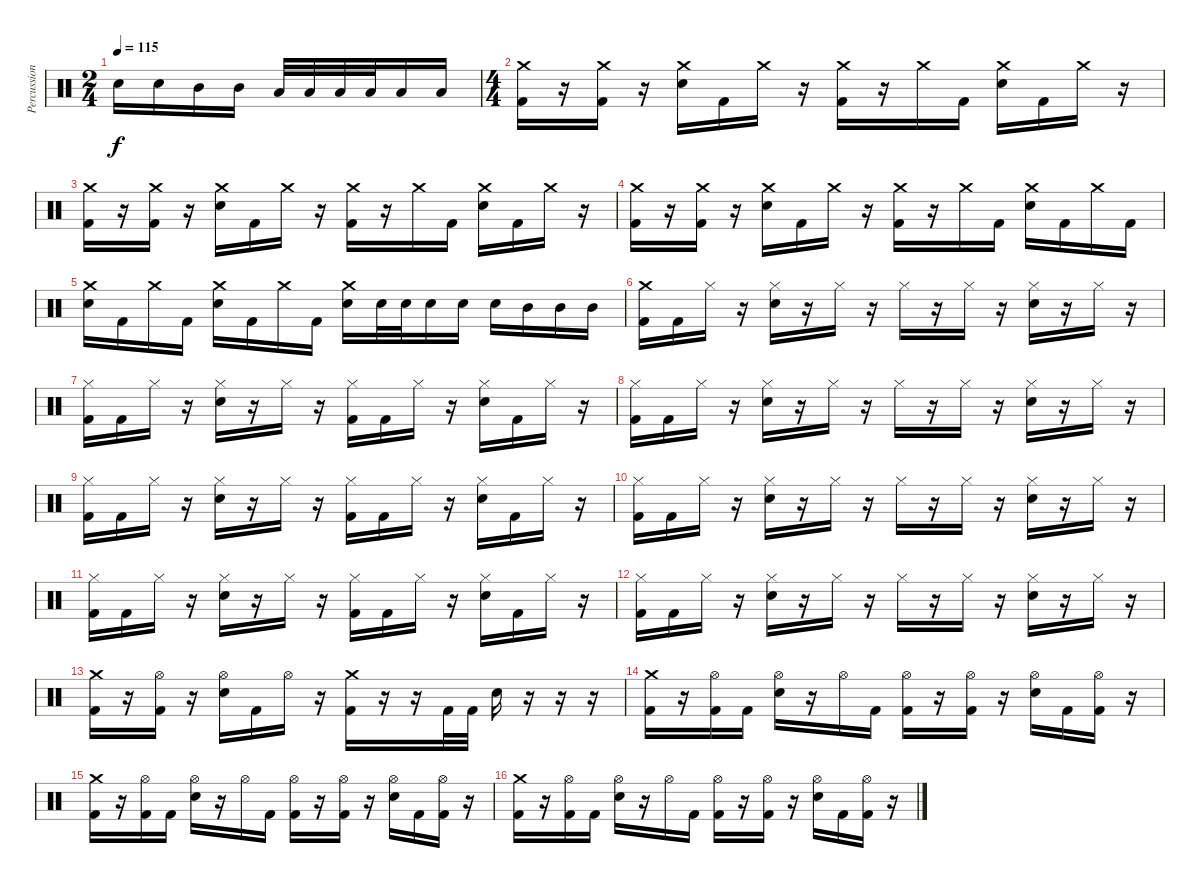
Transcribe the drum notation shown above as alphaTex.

\track ("Percussion" "Percussion") {instrument percussion}
\staff {score}
\articulation defaults
\ts (2 4)
\tempo 115
\clef neutral
\ks c "Electric Snare (hit)".16{dy f} "Electric Snare (hit)".16 "Mid Tom (hit)".16 "Mid Tom (hit)".16 "Low Tom (hit)".32 "Low Tom (hit)".32 "Low Tom (hit)".32 "Low Tom (hit)".32 "Low Tom (hit)".16 "Low Tom (hit)".16
|
\ts (4 4)
("Crash medium (hit)" "Kick (hit) 2").16 r.16 ("Crash medium (hit)" "Kick (hit) 2").16 r.16 ("Crash medium (hit)" "Electric Snare (hit)").16 "Kick (hit) 2".16 "Crash medium (hit)".16 r.16 ("Crash medium (hit)" "Kick (hit) 2").16 r.16 "Crash medium (hit)".16 "Kick (hit) 2".16 ("Crash medium (hit)" "Electric Snare (hit)").16 "Kick (hit) 2".16 "Crash medium (hit)".16 r.16 |
("Crash medium (hit)" "Kick (hit) 2").16 r.16 ("Crash medium (hit)" "Kick (hit) 2").16 r.16 ("Crash medium (hit)" "Electric Snare (hit)").16 "Kick (hit) 2".16 "Crash medium (hit)".16 r.16 ("Crash medium (hit)" "Kick (hit) 2").16 r.16 "Crash medium (hit)".16 "Kick (hit) 2".16 ("Crash medium (hit)" "Electric Snare (hit)").16 "Kick (hit) 2".16 "Crash medium (hit)".16 r.16 |
("Crash medium (hit)" "Kick (hit) 2").16 r.16 ("Crash medium (hit)" "Kick (hit) 2").16 r.16 ("Crash medium (hit)" "Electric Snare (hit)").16 "Kick (hit) 2".16 "Crash medium (hit)".16 r.16 ("Crash medium (hit)" "Kick (hit) 2").16 r.16 "Crash medium (hit)".16 "Kick (hit) 2".16 ("Crash medium (hit)" "Electric Snare (hit)").16 "Kick (hit) 2".16 "Crash medium (hit)".16 "Kick (hit) 2".16 |
("Crash medium (hit)" "Electric Snare (hit)").16 "Kick (hit) 2".16 "Crash medium (hit)".16 "Kick (hit) 2".16 ("Crash medium (hit)" "Electric Snare (hit)").16 "Kick (hit) 2".16 "Crash medium (hit)".16 "Kick (hit) 2".16 ("Crash medium (hit)" "Electric Snare (hit)").16 "Electric Snare (hit)".32 "Electric Snare (hit)".32 "Electric Snare (hit)".16 "Electric Snare (hit)".16 "Electric Snare (hit)".16 "Mid Tom (hit)".16 "Mid Tom (hit)".16 "Mid Tom (hit)".16 |
("Crash medium (hit)" "Kick (hit) 2").16 "Kick (hit) 2".16 "Hi-Hat (closed)".16 r.16 ("Hi-Hat (closed)" "Electric Snare (hit)").16 r.16 "Hi-Hat (closed)".16 r.16 "Hi-Hat (closed)".16 r.16 "Hi-Hat (closed)".16 r.16 ("Hi-Hat (closed)" "Electric Snare (hit)").16 r.16 "Hi-Hat (closed)".16 r.16 |
("Hi-Hat (closed)" "Kick (hit) 2").16 "Kick (hit) 2".16 "Hi-Hat (closed)".16 r.16 ("Hi-Hat (closed)" "Electric Snare (hit)").16 r.16 "Hi-Hat (closed)".16 r.16 ("Hi-Hat (closed)" "Kick (hit) 2").16 "Kick (hit) 2".16 "Hi-Hat (closed)".16 r.16 ("Hi-Hat (closed)" "Electric Snare (hit)").16 "Kick (hit) 2".16 "Hi-Hat (closed)".16 r.16 |
("Hi-Hat (closed)" "Kick (hit) 2").16 "Kick (hit) 2".16 "Hi-Hat (closed)".16 r.16 ("Hi-Hat (closed)" "Electric Snare (hit)").16 r.16 "Hi-Hat (closed)".16 r.16 "Hi-Hat (closed)".16 r.16 "Hi-Hat (closed)".16 r.16 ("Hi-Hat (closed)" "Electric Snare (hit)").16 r.16 "Hi-Hat (closed)".16 r.16 |
("Hi-Hat (closed)" "Kick (hit) 2").16 "Kick (hit) 2".16 "Hi-Hat (closed)".16 r.16 ("Hi-Hat (closed)" "Electric Snare (hit)").16 r.16 "Hi-Hat (closed)".16 r.16 ("Hi-Hat (closed)" "Kick (hit) 2").16 "Kick (hit) 2".16 "Hi-Hat (closed)".16 r.16 ("Hi-Hat (closed)" "Electric Snare (hit)").16 "Kick (hit) 2".16 "Hi-Hat (closed)".16 r.16 |
("Hi-Hat (closed)" "Kick (hit) 2").16 "Kick (hit) 2".16 "Hi-Hat (closed)".16 r.16 ("Hi-Hat (closed)" "Electric Snare (hit)").16 r.16 "Hi-Hat (closed)".16 r.16 "Hi-Hat (closed)".16 r.16 "Hi-Hat (closed)".16 r.16 ("Hi-Hat (closed)" "Electric Snare (hit)").16 r.16 "Hi-Hat (closed)".16 r.16 |
("Hi-Hat (closed)" "Kick (hit) 2").16 "Kick (hit) 2".16 "Hi-Hat (closed)".16 r.16 ("Hi-Hat (closed)" "Electric Snare (hit)").16 r.16 "Hi-Hat (closed)".16 r.16 ("Hi-Hat (closed)" "Kick (hit) 2").16 "Kick (hit) 2".16 "Hi-Hat (closed)".16 r.16 ("Hi-Hat (closed)" "Electric Snare (hit)").16 "Kick (hit) 2".16 "Hi-Hat (closed)".16 r.16 |
("Hi-Hat (closed)" "Kick (hit) 2").16 "Kick (hit) 2".16 "Hi-Hat (closed)".16 r.16 ("Hi-Hat (closed)" "Electric Snare (hit)").16 r.16 "Hi-Hat (closed)".16 r.16 "Hi-Hat (closed)".16 r.16 "Hi-Hat (closed)".16 r.16 ("Hi-Hat (closed)" "Electric Snare (hit)").16 r.16 "Hi-Hat (closed)".16 r.16 |
("Crash medium (hit)" "Kick (hit) 2").16 r.16 ("Hi-Hat (open)" "Kick (hit) 2").16 r.16 ("Hi-Hat (open)" "Electric Snare (hit)").16 "Kick (hit) 2".16 "Hi-Hat (open)".16 r.16 ("Crash medium (hit)" "Kick (hit) 2").16 r.16 r.16 "Kick (hit) 2".32 "Kick (hit) 2".32 "Electric Snare (hit)".16 r.16 r.16 r.16 |
("Crash medium (hit)" "Kick (hit) 2").16 r.16 ("Hi-Hat (open)" "Kick (hit) 2").16 "Kick (hit) 2".16 ("Hi-Hat (open)" "Electric Snare (hit)").16 r.16 "Hi-Hat (open)".16 "Kick (hit) 2".16 ("Hi-Hat (open)" "Kick (hit) 2").16 r.16 ("Hi-Hat (open)" "Kick (hit) 2").16 r.16 ("Hi-Hat (open)" "Electric Snare (hit)").16 "Kick (hit) 2".16 ("Hi-Hat (open)" "Kick (hit) 2").16 r.16 |
("Crash medium (hit)" "Kick (hit) 2").16 r.16 ("Hi-Hat (open)" "Kick (hit) 2").16 "Kick (hit) 2".16 ("Hi-Hat (open)" "Electric Snare (hit)").16 r.16 "Hi-Hat (open)".16 "Kick (hit) 2".16 ("Hi-Hat (open)" "Kick (hit) 2").16 r.16 ("Hi-Hat (open)" "Kick (hit) 2").16 r.16 ("Hi-Hat (open)" "Electric Snare (hit)").16 "Kick (hit) 2".16 ("Hi-Hat (open)" "Kick (hit) 2").16 r.16 |
("Crash medium (hit)" "Kick (hit) 2").16 r.16 ("Hi-Hat (open)" "Kick (hit) 2").16 "Kick (hit) 2".16 ("Hi-Hat (open)" "Electric Snare (hit)").16 r.16 "Hi-Hat (open)".16 "Kick (hit) 2".16 ("Hi-Hat (open)" "Kick (hit) 2").16 r.16 ("Hi-Hat (open)" "Kick (hit) 2").16 r.16 ("Hi-Hat (open)" "Electric Snare (hit)").16 "Kick (hit) 2".16 ("Hi-Hat (open)" "Kick (hit) 2").16 r.16
